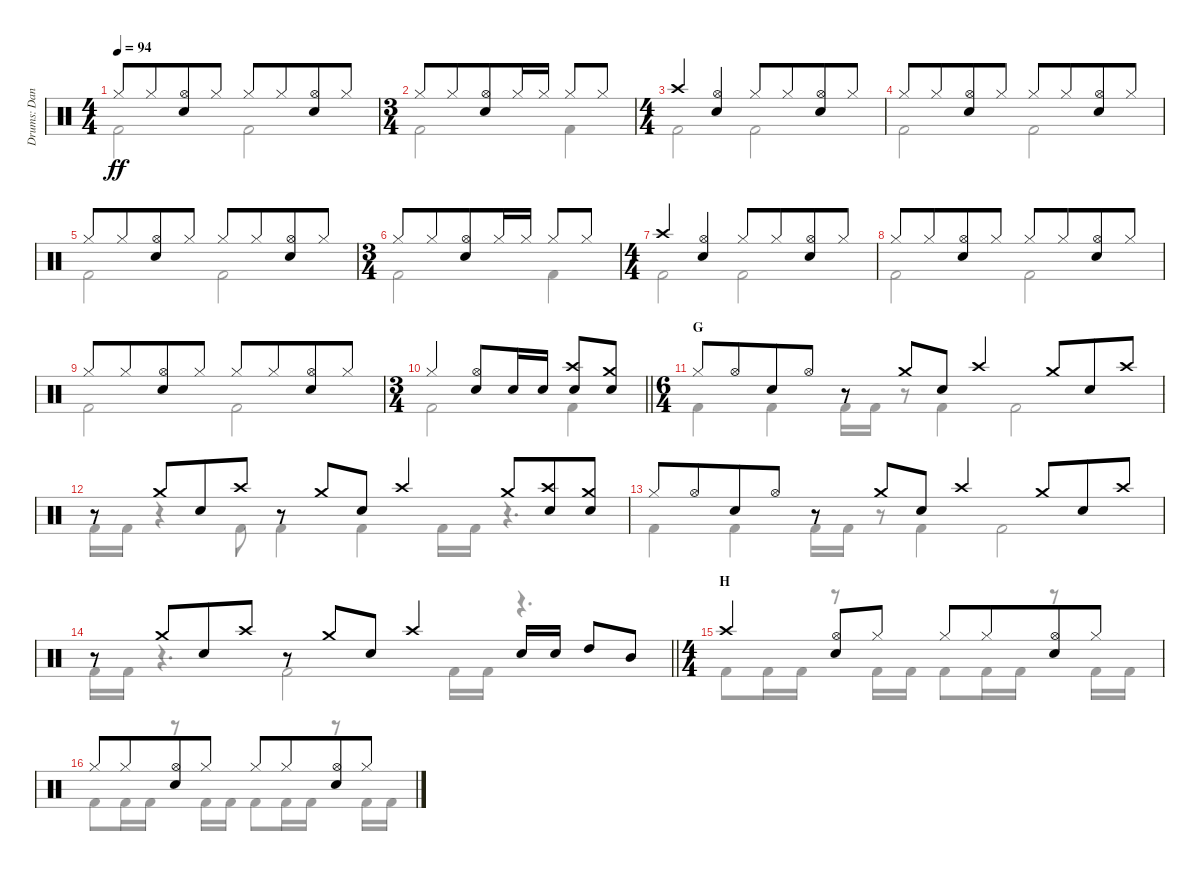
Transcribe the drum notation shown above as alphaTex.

\track ("Drums: Dana" "Drums: Dan") {instrument percussion}
\staff {score}
\articulation defaults
\voice
\ts (4 4)
\tempo 94
\clef neutral
\ks c "Hi-Hat (closed)".8{dy ff} "Hi-Hat (closed)".8{beam merge}
("Hi-Hat (open)" "Snare (hit) 2").8 "Hi-Hat (closed)".8 "Hi-Hat (closed)".8 "Hi-Hat (closed)".8{beam merge} ("Hi-Hat (open)" "Snare (hit) 2").8 "Hi-Hat (closed)".8 |
\ts (3 4)
"Hi-Hat (closed)".8 "Hi-Hat (closed)".8{beam merge} ("Hi-Hat (open)" "Snare (hit) 2").8 "Hi-Hat (closed)".16 "Hi-Hat (closed)".16 "Hi-Hat (closed)".8 "Hi-Hat (closed)".8 |
\ts (4 4)
"Crash high (hit)".4 ("Hi-Hat (open)" "Snare (hit) 2").4 "Hi-Hat (closed)".8 "Hi-Hat (closed)".8{beam merge} ("Hi-Hat (open)" "Snare (hit) 2").8 "Hi-Hat (closed)".8 |
"Hi-Hat (closed)".8 "Hi-Hat (closed)".8{beam merge} ("Hi-Hat (open)" "Snare (hit) 2").8 "Hi-Hat (closed)".8 "Hi-Hat (closed)".8 "Hi-Hat (closed)".8{beam merge} ("Hi-Hat (open)" "Snare (hit) 2").8 "Hi-Hat (closed)".8 |
"Hi-Hat (closed)".8 "Hi-Hat (closed)".8{beam merge} ("Hi-Hat (open)" "Snare (hit) 2").8 "Hi-Hat (closed)".8 "Hi-Hat (closed)".8 "Hi-Hat (closed)".8{beam merge} ("Hi-Hat (open)" "Snare (hit) 2").8 "Hi-Hat (closed)".8 |
\ts (3 4)
"Hi-Hat (closed)".8 "Hi-Hat (closed)".8{beam merge} ("Hi-Hat (open)" "Snare (hit) 2").8 "Hi-Hat (closed)".16 "Hi-Hat (closed)".16 "Hi-Hat (closed)".8 "Hi-Hat (closed)".8 |
\ts (4 4)
"Crash high (hit)".4 ("Hi-Hat (open)" "Snare (hit) 2").4 "Hi-Hat (closed)".8 "Hi-Hat (closed)".8{beam merge} ("Hi-Hat (open)" "Snare (hit) 2").8 "Hi-Hat (closed)".8 |
"Hi-Hat (closed)".8 "Hi-Hat (closed)".8{beam merge} ("Hi-Hat (open)" "Snare (hit) 2").8 "Hi-Hat (closed)".8 "Hi-Hat (closed)".8 "Hi-Hat (closed)".8{beam merge} ("Hi-Hat (open)" "Snare (hit) 2").8 "Hi-Hat (closed)".8 |
"Hi-Hat (closed)".8 "Hi-Hat (closed)".8{beam merge} ("Hi-Hat (open)" "Snare (hit) 2").8 "Hi-Hat (closed)".8 "Hi-Hat (closed)".8 "Hi-Hat (closed)".8{beam merge} ("Hi-Hat (open)" "Snare (hit) 2").8 "Hi-Hat (closed)".8 |
\ts (3 4)
\barLineRight lightlight "Hi-Hat (closed)".4{beam merge}
("Hi-Hat (open)" "Snare (hit) 2").8 "Snare (hit) 2".16 "Snare (hit) 2".16 ("Crash high (hit)" "Snare (hit) 2").8 ("Crash medium (hit)" "Snare (hit) 2").8 |
\ts (6 4)
\section ("" "G")
"Hi-Hat (closed)".8 "Hi-Hat (open)".8{beam merge} "Snare (hit) 2".8 "Hi-Hat (open)".8 r.8 "Crash medium (hit)".8{beam merge} "Snare (hit) 2".8 "Crash high (hit)".4 "Crash medium (hit)".8{beam merge} "Snare (hit) 2".8 "Crash high (hit)".8 |
r.8 "Crash medium (hit)".8{beam merge} "Snare (hit) 2".8 "Crash high (hit)".8 r.8 "Crash medium (hit)".8{beam merge} "Snare (hit) 2".8 "Crash high (hit)".4 "Crash medium (hit)".8{beam merge} ("Crash high (hit)" "Snare (hit) 2").8 ("Crash medium (hit)" "Snare (hit) 2").8 |
"Hi-Hat (closed)".8 "Hi-Hat (open)".8{beam merge} "Snare (hit) 2".8 "Hi-Hat (open)".8 r.8 "Crash medium (hit)".8{beam merge} "Snare (hit) 2".8 "Crash high (hit)".4 "Crash medium (hit)".8{beam merge} "Snare (hit) 2".8 "Crash high (hit)".8 |
\barLineRight lightlight
r.8 "Crash medium (hit)".8{beam merge} "Snare (hit) 2".8 "Crash high (hit)".8 r.8 "Crash medium (hit)".8{beam merge} "Snare (hit) 2".8 "Crash high (hit)".4 "Snare (hit) 2".16 "Snare (hit) 2".16 "High Tom (hit)".8 "Mid Tom (hit)".8 |
\ts (4 4)
\section ("" "H")
"Crash high (hit)".4 ("Hi-Hat (open)" "Snare (hit) 2").8 "Hi-Hat (closed)".8 "Hi-Hat (closed)".8 "Hi-Hat (closed)".8{beam merge} ("Hi-Hat (open)" "Snare (hit) 2").8 "Hi-Hat (closed)".8 |
"Hi-Hat (closed)".8 "Hi-Hat (closed)".8{beam merge} ("Hi-Hat (open)" "Snare (hit) 2").8 "Hi-Hat (closed)".8 "Hi-Hat (closed)".8 "Hi-Hat (closed)".8{beam merge} ("Hi-Hat (open)" "Snare (hit) 2").8 "Hi-Hat (closed)".8
\voice
\clef neutral
\ottava regular
\simile none
\ks c "Kick (hit) 2".2{dy ff} "Kick (hit) 2".2
|
"Kick (hit) 2".2 "Kick (hit) 2".4 |
"Kick (hit) 2".2 "Kick (hit) 2".2 |
"Kick (hit) 2".2 "Kick (hit) 2".2 |
"Kick (hit) 2".2 "Kick (hit) 2".2 |
"Kick (hit) 2".2 "Kick (hit) 2".4 |
"Kick (hit) 2".2 "Kick (hit) 2".2 |
"Kick (hit) 2".2 "Kick (hit) 2".2 |
"Kick (hit) 2".2 "Kick (hit) 2".2 |
\barLineRight lightlight "Kick (hit) 2".2 "Kick (hit) 2".4
|
"Kick (hit) 2".4 "Kick (hit) 2".4 "Kick (hit) 2".16 "Kick (hit) 2".16 r.8 "Kick (hit) 2".4 "Kick (hit) 2".2 |
"Kick (hit) 2".16 "Kick (hit) 2".16 r.4 "Kick (hit) 2".8 "Kick (hit) 2".4 "Kick (hit) 2".4 "Kick (hit) 2".16 "Kick (hit) 2".16 r.4{d} |
"Kick (hit) 2".4 "Kick (hit) 2".4 "Kick (hit) 2".16 "Kick (hit) 2".16 r.8 "Kick (hit) 2".4 "Kick (hit) 2".2 |
\barLineRight lightlight "Kick (hit) 2".16 "Kick (hit) 2".16
r.4{d} "Kick (hit) 2".2 "Kick (hit) 2".16 "Kick (hit) 2".16 r.4{d} |
"Kick (hit) 2".8 "Kick (hit) 2".16 "Kick (hit) 2".16 r.8 "Kick (hit) 2".16 "Kick (hit) 2".16 "Kick (hit) 2".8 "Kick (hit) 2".16 "Kick (hit) 2".16 r.8 "Kick (hit) 2".16 "Kick (hit) 2".16 |
"Kick (hit) 2".8 "Kick (hit) 2".16 "Kick (hit) 2".16 r.8 "Kick (hit) 2".16 "Kick (hit) 2".16 "Kick (hit) 2".8 "Kick (hit) 2".16 "Kick (hit) 2".16 r.8 "Kick (hit) 2".16 "Kick (hit) 2".16
